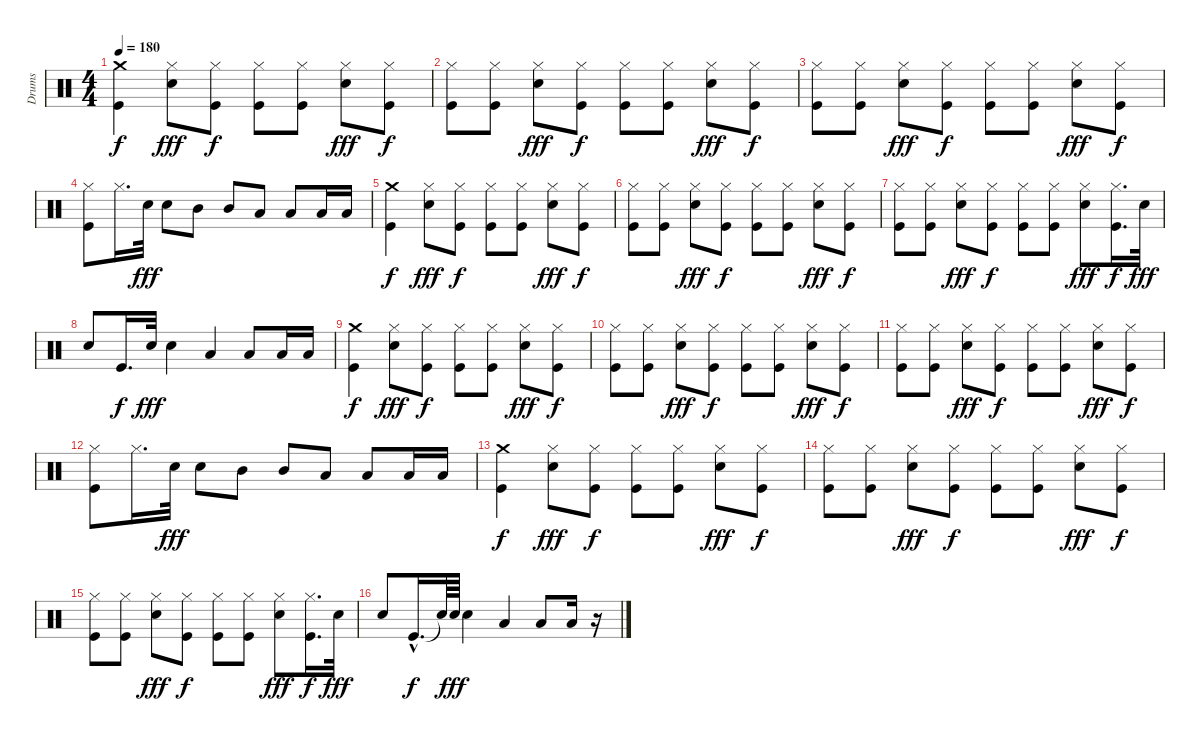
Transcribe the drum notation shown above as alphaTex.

\track ("Drums" "Drums") {instrument percussion}
\staff {score}
\articulation defaults
\ts (4 4)
\tempo 180
\clef neutral
\ks c
("Crash medium (hit)" "Kick (hit)").4{dy f} ("Hi-Hat (closed)" "Snare (hit) 2").8{dy fff} ("Hi-Hat (closed)" "Kick (hit)").8{dy f} ("Hi-Hat (closed)" "Kick (hit)").8 ("Hi-Hat (closed)" "Kick (hit)").8 ("Snare (hit) 2" "Hi-Hat (closed)").8{dy fff} ("Kick (hit)" "Hi-Hat (closed)").8{dy f} |
("Hi-Hat (closed)" "Kick (hit)").8 ("Hi-Hat (closed)" "Kick (hit)").8 ("Hi-Hat (closed)" "Snare (hit) 2").8{dy fff} ("Hi-Hat (closed)" "Kick (hit)").8{dy f} ("Hi-Hat (closed)" "Kick (hit)").8 ("Hi-Hat (closed)" "Kick (hit)").8 ("Snare (hit) 2" "Hi-Hat (closed)").8{dy fff} ("Kick (hit)" "Hi-Hat (closed)").8{dy f} |
("Hi-Hat (closed)" "Kick (hit)").8 ("Hi-Hat (closed)" "Kick (hit)").8 ("Hi-Hat (closed)" "Snare (hit) 2").8{dy fff} ("Hi-Hat (closed)" "Kick (hit)").8{dy f} ("Hi-Hat (closed)" "Kick (hit)").8 ("Hi-Hat (closed)" "Kick (hit)").8 ("Snare (hit) 2" "Hi-Hat (closed)").8{dy fff} ("Kick (hit)" "Hi-Hat (closed)").8{dy f} |
("Hi-Hat (closed)" "Kick (hit)").8 "Hi-Hat (closed)".16{d} "Snare (hit) 2".32{dy fff} "Snare (hit) 2".8 "Mid Tom (hit)".8 "Mid Tom (hit)".8 "Low Tom (hit)".8 "Low Tom (hit)".8 "Low Tom (hit)".16 "Low Tom (hit)".16 |
("Crash medium (hit)" "Kick (hit)").4{dy f} ("Hi-Hat (closed)" "Snare (hit) 2").8{dy fff} ("Hi-Hat (closed)" "Kick (hit)").8{dy f} ("Hi-Hat (closed)" "Kick (hit)").8 ("Hi-Hat (closed)" "Kick (hit)").8 ("Snare (hit) 2" "Hi-Hat (closed)").8{dy fff} ("Kick (hit)" "Hi-Hat (closed)").8{dy f} |
("Hi-Hat (closed)" "Kick (hit)").8 ("Hi-Hat (closed)" "Kick (hit)").8 ("Hi-Hat (closed)" "Snare (hit) 2").8{dy fff} ("Hi-Hat (closed)" "Kick (hit)").8{dy f} ("Hi-Hat (closed)" "Kick (hit)").8 ("Hi-Hat (closed)" "Kick (hit)").8 ("Snare (hit) 2" "Hi-Hat (closed)").8{dy fff} ("Kick (hit)" "Hi-Hat (closed)").8{dy f} |
("Hi-Hat (closed)" "Kick (hit)").8 ("Hi-Hat (closed)" "Kick (hit)").8 ("Hi-Hat (closed)" "Snare (hit) 2").8{dy fff} ("Hi-Hat (closed)" "Kick (hit)").8{dy f} ("Hi-Hat (closed)" "Kick (hit)").8 ("Hi-Hat (closed)" "Kick (hit)").8 ("Snare (hit) 2" "Hi-Hat (closed)").8{dy fff} ("Kick (hit)" "Hi-Hat (closed)").16{d dy f} "Snare (hit) 2".32{dy fff} |
"Snare (hit) 2".8 "Kick (hit)".16{d dy f} "Snare (hit) 2".32{dy fff} "Snare (hit) 2".4 "Low Tom (hit)".4 "Low Tom (hit)".8 "Low Tom (hit)".16 "Low Tom (hit)".16 |
("Crash medium (hit)" "Kick (hit)").4{dy f} ("Hi-Hat (closed)" "Snare (hit) 2").8{dy fff} ("Hi-Hat (closed)" "Kick (hit)").8{dy f} ("Hi-Hat (closed)" "Kick (hit)").8 ("Hi-Hat (closed)" "Kick (hit)").8 ("Snare (hit) 2" "Hi-Hat (closed)").8{dy fff} ("Kick (hit)" "Hi-Hat (closed)").8{dy f} |
("Hi-Hat (closed)" "Kick (hit)").8 ("Hi-Hat (closed)" "Kick (hit)").8 ("Hi-Hat (closed)" "Snare (hit) 2").8{dy fff} ("Hi-Hat (closed)" "Kick (hit)").8{dy f} ("Hi-Hat (closed)" "Kick (hit)").8 ("Hi-Hat (closed)" "Kick (hit)").8 ("Snare (hit) 2" "Hi-Hat (closed)").8{dy fff} ("Kick (hit)" "Hi-Hat (closed)").8{dy f} |
("Hi-Hat (closed)" "Kick (hit)").8 ("Hi-Hat (closed)" "Kick (hit)").8 ("Hi-Hat (closed)" "Snare (hit) 2").8{dy fff} ("Hi-Hat (closed)" "Kick (hit)").8{dy f} ("Hi-Hat (closed)" "Kick (hit)").8 ("Hi-Hat (closed)" "Kick (hit)").8 ("Snare (hit) 2" "Hi-Hat (closed)").8{dy fff} ("Kick (hit)" "Hi-Hat (closed)").8{dy f} |
("Hi-Hat (closed)" "Kick (hit)").8 "Hi-Hat (closed)".16{d} "Snare (hit) 2".32{dy fff} "Snare (hit) 2".8 "Mid Tom (hit)".8 "Mid Tom (hit)".8 "Low Tom (hit)".8 "Low Tom (hit)".8 "Low Tom (hit)".16 "Low Tom (hit)".16 |
("Crash medium (hit)" "Kick (hit)").4{dy f} ("Hi-Hat (closed)" "Snare (hit) 2").8{dy fff} ("Hi-Hat (closed)" "Kick (hit)").8{dy f} ("Hi-Hat (closed)" "Kick (hit)").8 ("Hi-Hat (closed)" "Kick (hit)").8 ("Snare (hit) 2" "Hi-Hat (closed)").8{dy fff} ("Kick (hit)" "Hi-Hat (closed)").8{dy f} |
("Hi-Hat (closed)" "Kick (hit)").8 ("Hi-Hat (closed)" "Kick (hit)").8 ("Hi-Hat (closed)" "Snare (hit) 2").8{dy fff} ("Hi-Hat (closed)" "Kick (hit)").8{dy f} ("Hi-Hat (closed)" "Kick (hit)").8 ("Hi-Hat (closed)" "Kick (hit)").8 ("Snare (hit) 2" "Hi-Hat (closed)").8{dy fff} ("Kick (hit)" "Hi-Hat (closed)").8{dy f} |
("Hi-Hat (closed)" "Kick (hit)").8 ("Hi-Hat (closed)" "Kick (hit)").8 ("Hi-Hat (closed)" "Snare (hit) 2").8{dy fff} ("Hi-Hat (closed)" "Kick (hit)").8{dy f} ("Hi-Hat (closed)" "Kick (hit)").8 ("Hi-Hat (closed)" "Kick (hit)").8 ("Snare (hit) 2" "Hi-Hat (closed)").8{dy fff} ("Kick (hit)" "Hi-Hat (closed)").16{d dy f} "Snare (hit) 2".32{dy fff} |
"Snare (hit) 2".8 "Kick (hit)"{hac}.16{d dy f} "Snare (hit)"{t}.64 "Snare (hit) 2".64{dy fff} "Snare (hit) 2".4 "Low Tom (hit)".4 "Low Tom (hit)".8 "Low Tom (hit)".16 r.16
